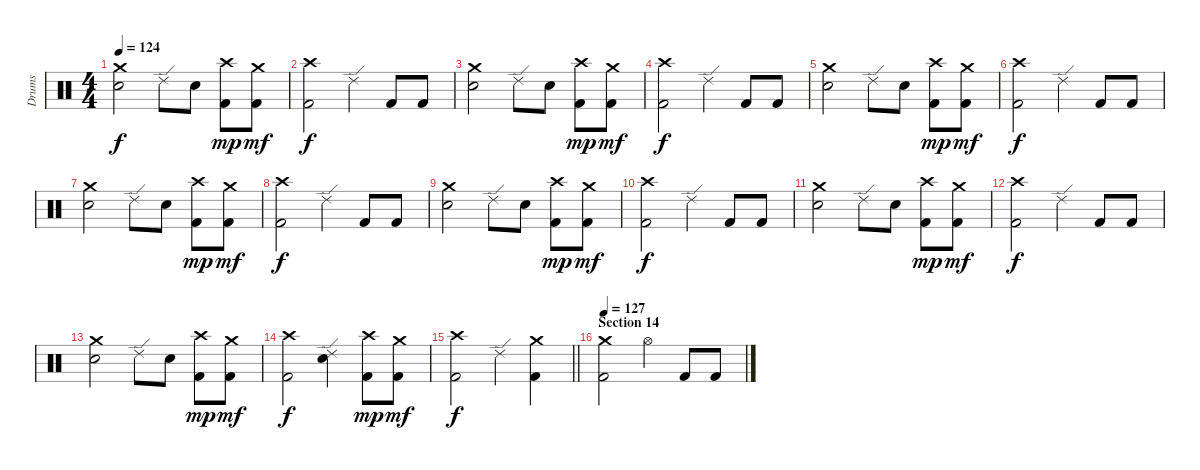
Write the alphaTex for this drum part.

\track ("Drums" "Drums") {instrument percussion}
\staff {score}
\articulation defaults
\ts (4 4)
\tempo 124
\clef neutral
\ks c
("Crash medium (hit)" "Electric Snare (hit)").2{dy f} "Ride (edge) 2".8 "Electric Snare (hit)".8 ("Crash high (hit)" "Kick (hit) 2").8{dy mp} ("Crash medium (hit)" "Kick (hit) 2").8{dy mf} |
("Crash high (hit)" "Kick (hit) 2").2{dy f} "Ride (edge) 2".4 "Kick (hit) 2".8 "Kick (hit) 2".8 |
("Crash medium (hit)" "Electric Snare (hit)").2 "Ride (edge) 2".8 "Electric Snare (hit)".8 ("Crash high (hit)" "Kick (hit) 2").8{dy mp} ("Crash medium (hit)" "Kick (hit) 2").8{dy mf} |
("Crash high (hit)" "Kick (hit) 2").2{dy f} "Ride (edge) 2".4 "Kick (hit) 2".8 "Kick (hit) 2".8 |
("Crash medium (hit)" "Electric Snare (hit)").2 "Ride (edge) 2".8 "Electric Snare (hit)".8 ("Crash high (hit)" "Kick (hit) 2").8{dy mp} ("Crash medium (hit)" "Kick (hit) 2").8{dy mf} |
("Crash high (hit)" "Kick (hit) 2").2{dy f} "Ride (edge) 2".4 "Kick (hit) 2".8 "Kick (hit) 2".8 |
("Crash medium (hit)" "Electric Snare (hit)").2 "Ride (edge) 2".8 "Electric Snare (hit)".8 ("Crash high (hit)" "Kick (hit) 2").8{dy mp} ("Crash medium (hit)" "Kick (hit) 2").8{dy mf} |
("Crash high (hit)" "Kick (hit) 2").2{dy f} "Ride (edge) 2".4 "Kick (hit) 2".8 "Kick (hit) 2".8 |
("Crash medium (hit)" "Electric Snare (hit)").2 "Ride (edge) 2".8 "Electric Snare (hit)".8 ("Crash high (hit)" "Kick (hit) 2").8{dy mp} ("Crash medium (hit)" "Kick (hit) 2").8{dy mf} |
("Crash high (hit)" "Kick (hit) 2").2{dy f} "Ride (edge) 2".4 "Kick (hit) 2".8 "Kick (hit) 2".8 |
("Crash medium (hit)" "Electric Snare (hit)").2 "Ride (edge) 2".8 "Electric Snare (hit)".8 ("Crash high (hit)" "Kick (hit) 2").8{dy mp} ("Crash medium (hit)" "Kick (hit) 2").8{dy mf} |
("Crash high (hit)" "Kick (hit) 2").2{dy f} "Ride (edge) 2".4 "Kick (hit) 2".8 "Kick (hit) 2".8 |
("Crash medium (hit)" "Electric Snare (hit)").2 "Ride (edge) 2".8 "Electric Snare (hit)".8 ("Crash high (hit)" "Kick (hit) 2").8{dy mp} ("Crash medium (hit)" "Kick (hit) 2").8{dy mf} |
("Crash high (hit)" "Kick (hit) 2").2{dy f} ("Ride (edge) 2" "Electric Snare (hit)").4 ("Crash high (hit)" "Kick (hit) 2").8{dy mp} ("Crash medium (hit)" "Kick (hit) 2").8{dy mf} |
\barLineRight lightlight
("Crash high (hit)" "Kick (hit) 2").2{dy f} "Ride (edge) 2".4 ("Crash medium (hit)" "Kick (hit) 2").4 |
\section ("" "Section 14")
\tempo 127
("Crash medium (hit)" "Kick (hit) 2").2 "Hi-Hat (open)".4 "Kick (hit) 2".8 "Kick (hit) 2".8
